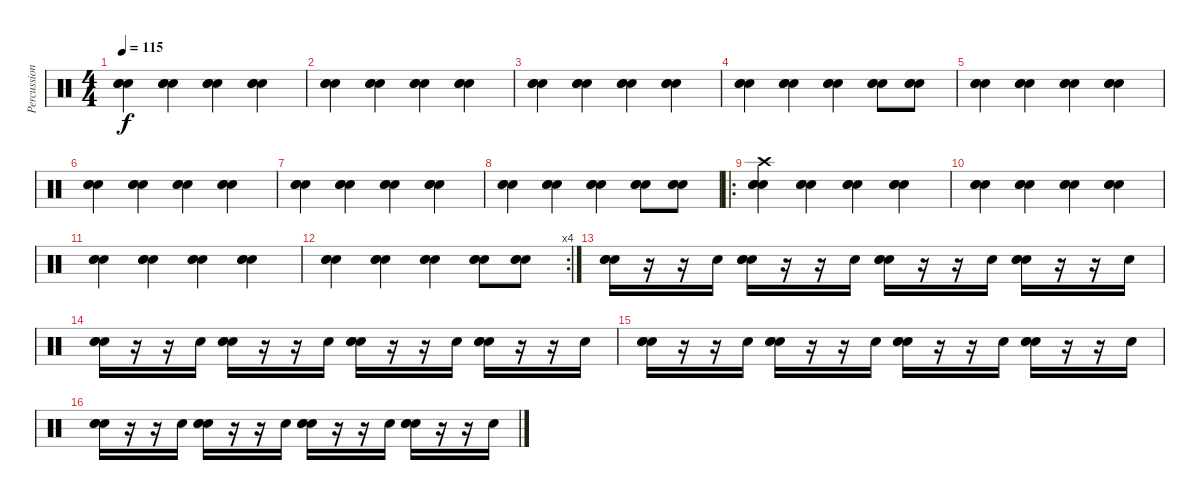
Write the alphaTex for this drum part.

\track ("Percussion" "Percussion") {instrument percussion}
\staff {score}
\articulation defaults
\ts (4 4)
\tempo 115
\clef neutral
\ks c
("Electric Snare (hit)" "Electric Snare (hit)" "Electric Snare (hit)").4{dy f} ("Electric Snare (hit)" "Electric Snare (hit)" "Electric Snare (hit)").4 ("Electric Snare (hit)" "Electric Snare (hit)" "Electric Snare (hit)").4 ("Electric Snare (hit)" "Electric Snare (hit)" "Electric Snare (hit)").4 |
("Electric Snare (hit)" "Electric Snare (hit)" "Electric Snare (hit)").4 ("Electric Snare (hit)" "Electric Snare (hit)" "Electric Snare (hit)").4 ("Electric Snare (hit)" "Electric Snare (hit)" "Electric Snare (hit)").4 ("Electric Snare (hit)" "Electric Snare (hit)" "Electric Snare (hit)").4 |
("Electric Snare (hit)" "Electric Snare (hit)" "Electric Snare (hit)").4 ("Electric Snare (hit)" "Electric Snare (hit)" "Electric Snare (hit)").4 ("Electric Snare (hit)" "Electric Snare (hit)" "Electric Snare (hit)").4 ("Electric Snare (hit)" "Electric Snare (hit)" "Electric Snare (hit)").4 |
("Electric Snare (hit)" "Electric Snare (hit)" "Electric Snare (hit)").4 ("Electric Snare (hit)" "Electric Snare (hit)" "Electric Snare (hit)").4 ("Electric Snare (hit)" "Electric Snare (hit)" "Electric Snare (hit)").4 ("Electric Snare (hit)" "Electric Snare (hit)" "Electric Snare (hit)").8 ("Electric Snare (hit)" "Electric Snare (hit)" "Electric Snare (hit)").8 |
("Electric Snare (hit)" "Electric Snare (hit)" "Electric Snare (hit)").4 ("Electric Snare (hit)" "Electric Snare (hit)" "Electric Snare (hit)").4 ("Electric Snare (hit)" "Electric Snare (hit)" "Electric Snare (hit)").4 ("Electric Snare (hit)" "Electric Snare (hit)" "Electric Snare (hit)").4 |
("Electric Snare (hit)" "Electric Snare (hit)" "Electric Snare (hit)").4 ("Electric Snare (hit)" "Electric Snare (hit)" "Electric Snare (hit)").4 ("Electric Snare (hit)" "Electric Snare (hit)" "Electric Snare (hit)").4 ("Electric Snare (hit)" "Electric Snare (hit)" "Electric Snare (hit)").4 |
("Electric Snare (hit)" "Electric Snare (hit)" "Electric Snare (hit)").4 ("Electric Snare (hit)" "Electric Snare (hit)" "Electric Snare (hit)").4 ("Electric Snare (hit)" "Electric Snare (hit)" "Electric Snare (hit)").4 ("Electric Snare (hit)" "Electric Snare (hit)" "Electric Snare (hit)").4 |
("Electric Snare (hit)" "Electric Snare (hit)" "Electric Snare (hit)").4 ("Electric Snare (hit)" "Electric Snare (hit)" "Electric Snare (hit)").4 ("Electric Snare (hit)" "Electric Snare (hit)" "Electric Snare (hit)").4 ("Electric Snare (hit)" "Electric Snare (hit)" "Electric Snare (hit)").8 ("Electric Snare (hit)" "Electric Snare (hit)" "Electric Snare (hit)").8 |
\ro
("Electric Snare (hit)" "Electric Snare (hit)" "Electric Snare (hit)" "Crash high (hit)").4 ("Electric Snare (hit)" "Electric Snare (hit)" "Electric Snare (hit)").4 ("Electric Snare (hit)" "Electric Snare (hit)" "Electric Snare (hit)").4 ("Electric Snare (hit)" "Electric Snare (hit)" "Electric Snare (hit)").4 |
("Electric Snare (hit)" "Electric Snare (hit)" "Electric Snare (hit)").4 ("Electric Snare (hit)" "Electric Snare (hit)" "Electric Snare (hit)").4 ("Electric Snare (hit)" "Electric Snare (hit)" "Electric Snare (hit)").4 ("Electric Snare (hit)" "Electric Snare (hit)" "Electric Snare (hit)").4 |
("Electric Snare (hit)" "Electric Snare (hit)" "Electric Snare (hit)").4 ("Electric Snare (hit)" "Electric Snare (hit)" "Electric Snare (hit)").4 ("Electric Snare (hit)" "Electric Snare (hit)" "Electric Snare (hit)").4 ("Electric Snare (hit)" "Electric Snare (hit)" "Electric Snare (hit)").4 |
\rc 4
("Electric Snare (hit)" "Electric Snare (hit)" "Electric Snare (hit)").4 ("Electric Snare (hit)" "Electric Snare (hit)" "Electric Snare (hit)").4 ("Electric Snare (hit)" "Electric Snare (hit)" "Electric Snare (hit)").4 ("Electric Snare (hit)" "Electric Snare (hit)" "Electric Snare (hit)").8 ("Electric Snare (hit)" "Electric Snare (hit)" "Electric Snare (hit)").8 |
("Electric Snare (hit)" "Electric Snare (hit)" "Electric Snare (hit)").16 r.16 r.16 "Electric Snare (hit)".16 ("Electric Snare (hit)" "Electric Snare (hit)" "Electric Snare (hit)").16 r.16 r.16 "Electric Snare (hit)".16 ("Electric Snare (hit)" "Electric Snare (hit)" "Electric Snare (hit)").16 r.16 r.16 "Electric Snare (hit)".16 ("Electric Snare (hit)" "Electric Snare (hit)" "Electric Snare (hit)").16 r.16 r.16 "Electric Snare (hit)".16 |
("Electric Snare (hit)" "Electric Snare (hit)" "Electric Snare (hit)").16 r.16 r.16 "Electric Snare (hit)".16 ("Electric Snare (hit)" "Electric Snare (hit)" "Electric Snare (hit)").16 r.16 r.16 "Electric Snare (hit)".16 ("Electric Snare (hit)" "Electric Snare (hit)" "Electric Snare (hit)").16 r.16 r.16 "Electric Snare (hit)".16 ("Electric Snare (hit)" "Electric Snare (hit)" "Electric Snare (hit)").16 r.16 r.16 "Electric Snare (hit)".16 |
("Electric Snare (hit)" "Electric Snare (hit)" "Electric Snare (hit)").16 r.16 r.16 "Electric Snare (hit)".16 ("Electric Snare (hit)" "Electric Snare (hit)" "Electric Snare (hit)").16 r.16 r.16 "Electric Snare (hit)".16 ("Electric Snare (hit)" "Electric Snare (hit)" "Electric Snare (hit)").16 r.16 r.16 "Electric Snare (hit)".16 ("Electric Snare (hit)" "Electric Snare (hit)" "Electric Snare (hit)").16 r.16 r.16 "Electric Snare (hit)".16 |
("Electric Snare (hit)" "Electric Snare (hit)" "Electric Snare (hit)").16 r.16 r.16 "Electric Snare (hit)".16 ("Electric Snare (hit)" "Electric Snare (hit)" "Electric Snare (hit)").16 r.16 r.16 "Electric Snare (hit)".16 ("Electric Snare (hit)" "Electric Snare (hit)" "Electric Snare (hit)").16 r.16 r.16 "Electric Snare (hit)".16 ("Electric Snare (hit)" "Electric Snare (hit)" "Electric Snare (hit)").16 r.16 r.16 "Electric Snare (hit)".16
